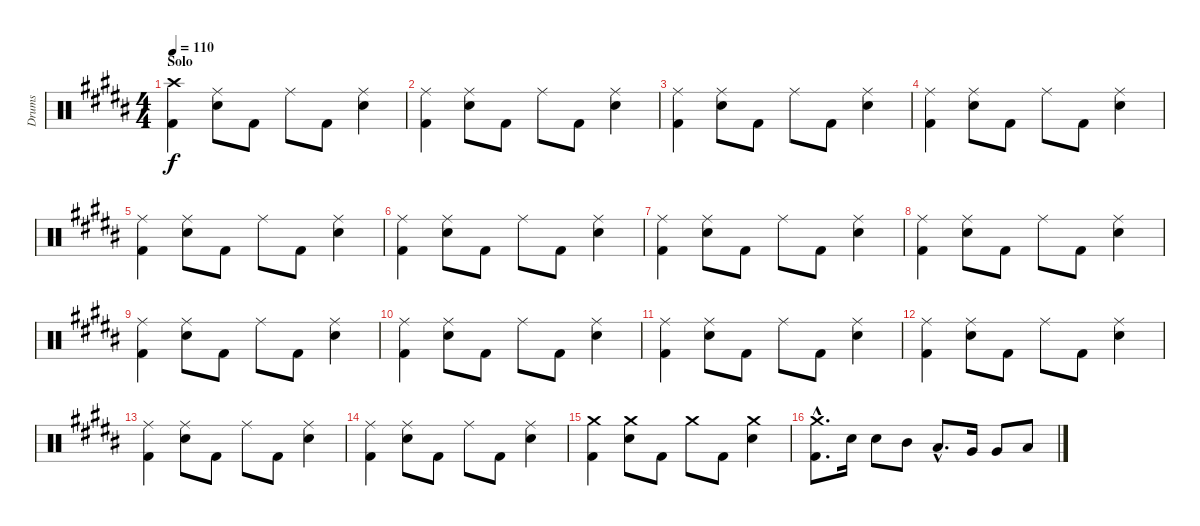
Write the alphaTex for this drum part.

\track ("Drums" "Drums") {instrument percussion}
\staff {score}
\articulation defaults
\ts (4 4)
\section ("" "Solo")
\tempo 110
\clef neutral
\ks b
("Crash high (hit)" "Kick (hit) 2").4{dy f} ("Ride (middle)" "Electric Snare (hit)").8 "Kick (hit) 2".8 "Ride (middle)".8 "Kick (hit) 2".8 ("Ride (middle)" "Electric Snare (hit)").4 |
("Ride (middle)" "Kick (hit) 2").4 ("Ride (middle)" "Electric Snare (hit)").8 "Kick (hit) 2".8 "Ride (middle)".8 "Kick (hit) 2".8 ("Ride (middle)" "Electric Snare (hit)").4 |
("Ride (middle)" "Kick (hit) 2").4 ("Ride (middle)" "Electric Snare (hit)").8 "Kick (hit) 2".8 "Ride (middle)".8 "Kick (hit) 2".8 ("Ride (middle)" "Electric Snare (hit)").4 |
("Ride (middle)" "Kick (hit) 2").4 ("Ride (middle)" "Electric Snare (hit)").8 "Kick (hit) 2".8 "Ride (middle)".8 "Kick (hit) 2".8 ("Ride (middle)" "Electric Snare (hit)").4 |
("Ride (middle)" "Kick (hit) 2").4 ("Ride (middle)" "Electric Snare (hit)").8 "Kick (hit) 2".8 "Ride (middle)".8 "Kick (hit) 2".8 ("Ride (middle)" "Electric Snare (hit)").4 |
("Ride (middle)" "Kick (hit) 2").4 ("Ride (middle)" "Electric Snare (hit)").8 "Kick (hit) 2".8 "Ride (middle)".8 "Kick (hit) 2".8 ("Ride (middle)" "Electric Snare (hit)").4 |
("Ride (middle)" "Kick (hit) 2").4 ("Ride (middle)" "Electric Snare (hit)").8 "Kick (hit) 2".8 "Ride (middle)".8 "Kick (hit) 2".8 ("Ride (middle)" "Electric Snare (hit)").4 |
("Ride (middle)" "Kick (hit) 2").4 ("Ride (middle)" "Electric Snare (hit)").8 "Kick (hit) 2".8 "Ride (middle)".8 "Kick (hit) 2".8 ("Ride (middle)" "Electric Snare (hit)").4 |
("Ride (middle)" "Kick (hit) 2").4 ("Ride (middle)" "Electric Snare (hit)").8 "Kick (hit) 2".8 "Ride (middle)".8 "Kick (hit) 2".8 ("Ride (middle)" "Electric Snare (hit)").4 |
("Ride (middle)" "Kick (hit) 2").4 ("Ride (middle)" "Electric Snare (hit)").8 "Kick (hit) 2".8 "Ride (middle)".8 "Kick (hit) 2".8 ("Ride (middle)" "Electric Snare (hit)").4 |
("Ride (middle)" "Kick (hit) 2").4 ("Ride (middle)" "Electric Snare (hit)").8 "Kick (hit) 2".8 "Ride (middle)".8 "Kick (hit) 2".8 ("Ride (middle)" "Electric Snare (hit)").4 |
("Ride (middle)" "Kick (hit) 2").4 ("Ride (middle)" "Electric Snare (hit)").8 "Kick (hit) 2".8 "Ride (middle)".8 "Kick (hit) 2".8 ("Ride (middle)" "Electric Snare (hit)").4 |
("Ride (middle)" "Kick (hit) 2").4 ("Ride (middle)" "Electric Snare (hit)").8 "Kick (hit) 2".8 "Ride (middle)".8 "Kick (hit) 2".8 ("Ride (middle)" "Electric Snare (hit)").4 |
("Ride (middle)" "Kick (hit) 2").4 ("Ride (middle)" "Electric Snare (hit)").8 "Kick (hit) 2".8 "Ride (middle)".8 "Kick (hit) 2".8 ("Ride (middle)" "Electric Snare (hit)").4 |
("Crash medium (hit)" "Kick (hit) 2").4 ("Crash medium (hit)" "Electric Snare (hit)").8 "Kick (hit) 2".8 "Crash medium (hit)".8 "Kick (hit) 2".8 ("Crash medium (hit)" "Electric Snare (hit)").4 |
("Crash medium (hit)"{hac} "Kick (hit) 2"{hac}).8{d} "Electric Snare (hit)".16 "Electric Snare (hit)".8 "Mid Tom (hit)".8 "Low Tom (hit)"{hac}.8{d} "Very Low Tom (hit)".16 "Very Low Tom (hit)".8 "Low Floor Tom (hit)".8
